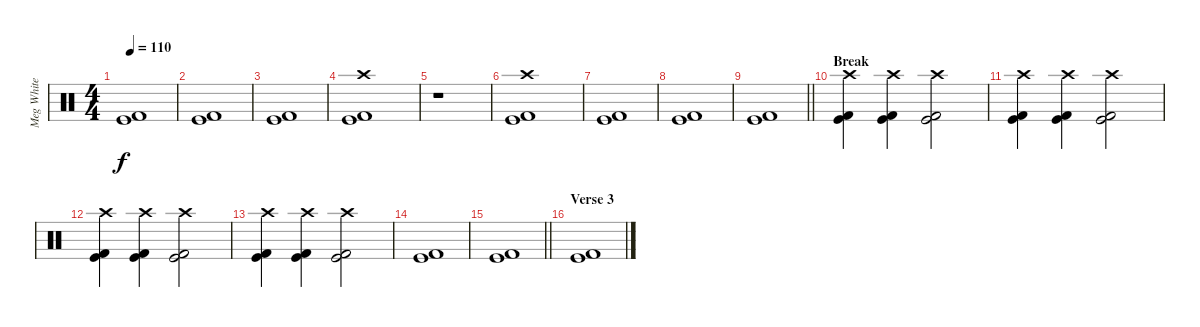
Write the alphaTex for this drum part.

\track ("Meg White (Drums)" "Meg White ") {instrument percussion}
\staff {score}
\articulation defaults
\ts (4 4)
\tempo 110
\clef neutral
\ks c
("Kick (hit)" "Kick (hit) 2").1{dy f} |
("Kick (hit) 2" "Kick (hit)").1 |
("Kick (hit) 2" "Kick (hit)").1 |
("Kick (hit) 2" "Kick (hit)" "Crash high (hit)").1 |
r.1 |
("Kick (hit)" "Kick (hit) 2" "Crash high (hit)").1 |
("Kick (hit)" "Kick (hit) 2").1 |
("Kick (hit)" "Kick (hit) 2").1 |
\barLineRight lightlight
("Kick (hit)" "Kick (hit) 2").1 |
\section ("" "Break")
("Kick (hit)" "Kick (hit) 2" "Crash high (hit)").4 ("Kick (hit)" "Kick (hit) 2" "Crash high (hit)").4 ("Kick (hit)" "Kick (hit) 2" "Crash high (hit)").2 |
("Kick (hit)" "Kick (hit) 2" "Crash high (hit)").4 ("Kick (hit)" "Kick (hit) 2" "Crash high (hit)").4 ("Kick (hit)" "Kick (hit) 2" "Crash high (hit)").2 |
("Kick (hit)" "Kick (hit) 2" "Crash high (hit)").4 ("Kick (hit)" "Kick (hit) 2" "Crash high (hit)").4 ("Kick (hit)" "Kick (hit) 2" "Crash high (hit)").2 |
("Kick (hit)" "Kick (hit) 2" "Crash high (hit)").4 ("Kick (hit)" "Kick (hit) 2" "Crash high (hit)").4 ("Kick (hit)" "Kick (hit) 2" "Crash high (hit)").2 |
("Kick (hit)" "Kick (hit) 2").1 |
\barLineRight lightlight
("Kick (hit)" "Kick (hit) 2").1 |
\section ("" "Verse 3")
("Kick (hit)" "Kick (hit) 2").1
